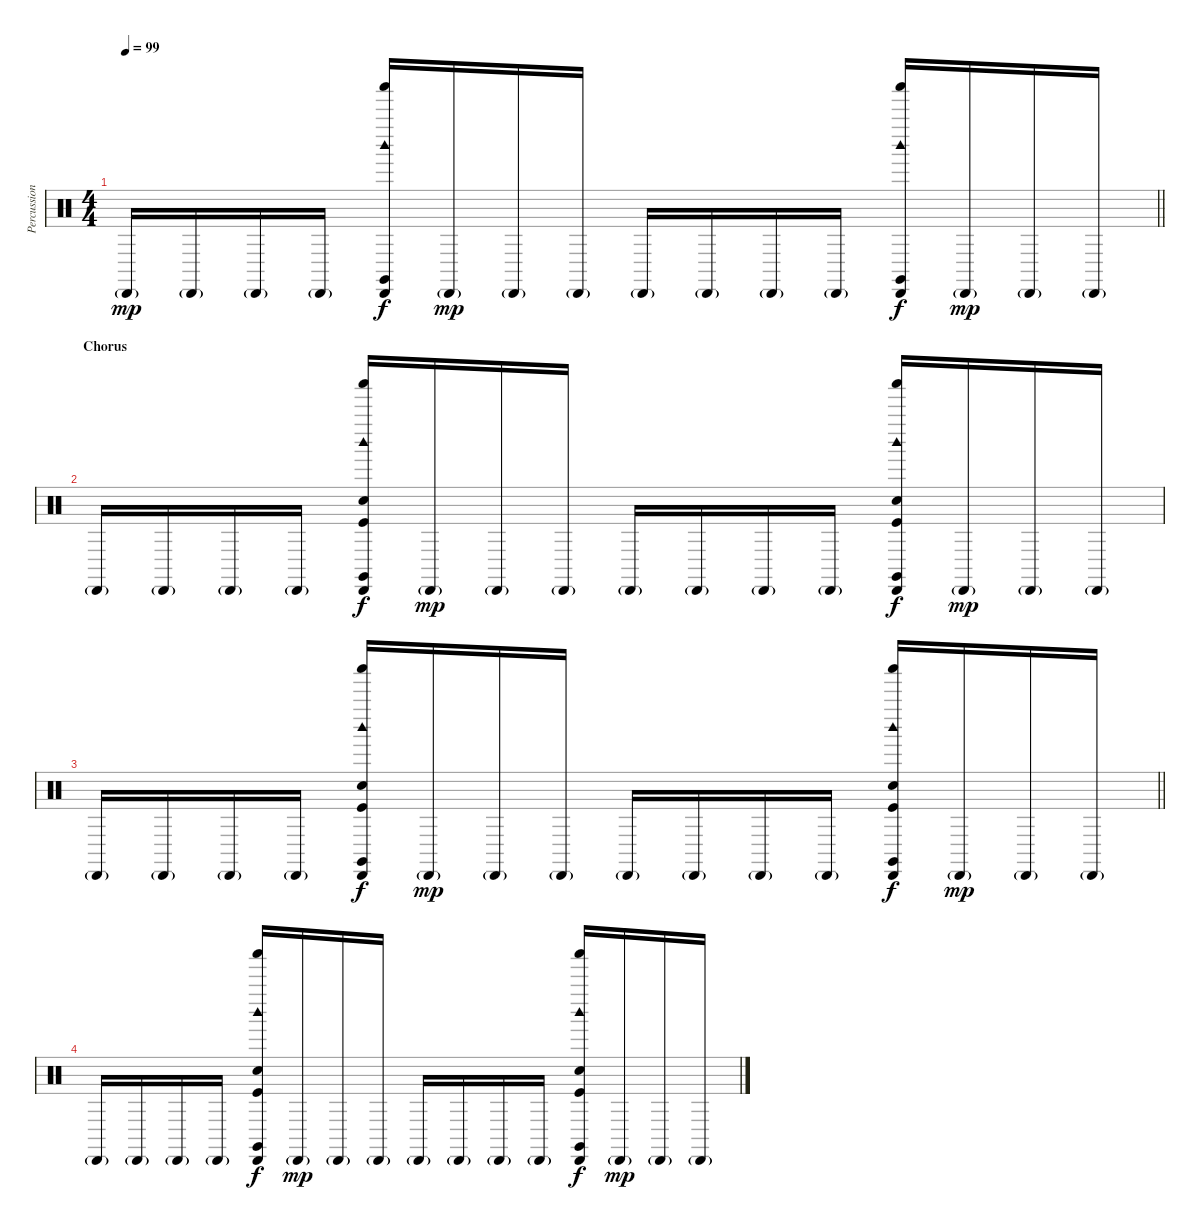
\track ("Percussion" "Percussion") {instrument percussion}
\staff {score}
\articulation defaults
\ts (4 4)
\tempo 99
\clef neutral
\barLineRight lightlight
\ks c "Cabasa (hit)"{g}.16{dy mp} "Cabasa (hit)"{g}.16 "Cabasa (hit)"{g}.16 "Cabasa (hit)"{g}.16
("Cabasa (hit)" "Shaker (hit)" "Claves (hit)" "Woodblock high (hit)").16{dy f} "Cabasa (hit)"{g}.16{dy mp} "Cabasa (hit)"{g}.16 "Cabasa (hit)"{g}.16 "Cabasa (hit)"{g}.16 "Cabasa (hit)"{g}.16 "Cabasa (hit)"{g}.16 "Cabasa (hit)"{g}.16 ("Cabasa (hit)" "Shaker (hit)" "Claves (hit)" "Woodblock high (hit)").16{dy f} "Cabasa (hit)"{g}.16{dy mp} "Cabasa (hit)"{g}.16 "Cabasa (hit)"{g}.16 |
\section ("" "Chorus")
"Cabasa (hit)"{g}.16 "Cabasa (hit)"{g}.16 "Cabasa (hit)"{g}.16 "Cabasa (hit)"{g}.16 ("Cabasa (hit)" "Shaker (hit)" "Claves (hit)" "Woodblock high (hit)" "Hand Clap (hit)" "Kick (hit)").16{dy f} "Cabasa (hit)"{g}.16{dy mp} "Cabasa (hit)"{g}.16 "Cabasa (hit)"{g}.16 "Cabasa (hit)"{g}.16 "Cabasa (hit)"{g}.16 "Cabasa (hit)"{g}.16 "Cabasa (hit)"{g}.16 ("Cabasa (hit)" "Shaker (hit)" "Claves (hit)" "Woodblock high (hit)" "Hand Clap (hit)" "Kick (hit)").16{dy f} "Cabasa (hit)"{g}.16{dy mp} "Cabasa (hit)"{g}.16 "Cabasa (hit)"{g}.16 |
\barLineRight lightlight "Cabasa (hit)"{g}.16 "Cabasa (hit)"{g}.16 "Cabasa (hit)"{g}.16 "Cabasa (hit)"{g}.16
("Cabasa (hit)" "Shaker (hit)" "Claves (hit)" "Woodblock high (hit)" "Hand Clap (hit)" "Kick (hit)").16{dy f} "Cabasa (hit)"{g}.16{dy mp} "Cabasa (hit)"{g}.16 "Cabasa (hit)"{g}.16 "Cabasa (hit)"{g}.16 "Cabasa (hit)"{g}.16 "Cabasa (hit)"{g}.16 "Cabasa (hit)"{g}.16 ("Cabasa (hit)" "Shaker (hit)" "Claves (hit)" "Woodblock high (hit)" "Hand Clap (hit)" "Kick (hit)").16{dy f} "Cabasa (hit)"{g}.16{dy mp} "Cabasa (hit)"{g}.16 "Cabasa (hit)"{g}.16 |
"Cabasa (hit)"{g}.16 "Cabasa (hit)"{g}.16 "Cabasa (hit)"{g}.16 "Cabasa (hit)"{g}.16 ("Cabasa (hit)" "Shaker (hit)" "Claves (hit)" "Woodblock high (hit)" "Hand Clap (hit)" "Kick (hit)").16{dy f} "Cabasa (hit)"{g}.16{dy mp} "Cabasa (hit)"{g}.16 "Cabasa (hit)"{g}.16 "Cabasa (hit)"{g}.16 "Cabasa (hit)"{g}.16 "Cabasa (hit)"{g}.16 "Cabasa (hit)"{g}.16 ("Cabasa (hit)" "Shaker (hit)" "Claves (hit)" "Woodblock high (hit)" "Hand Clap (hit)" "Kick (hit)").16{dy f} "Cabasa (hit)"{g}.16{dy mp} "Cabasa (hit)"{g}.16 "Cabasa (hit)"{g}.16
